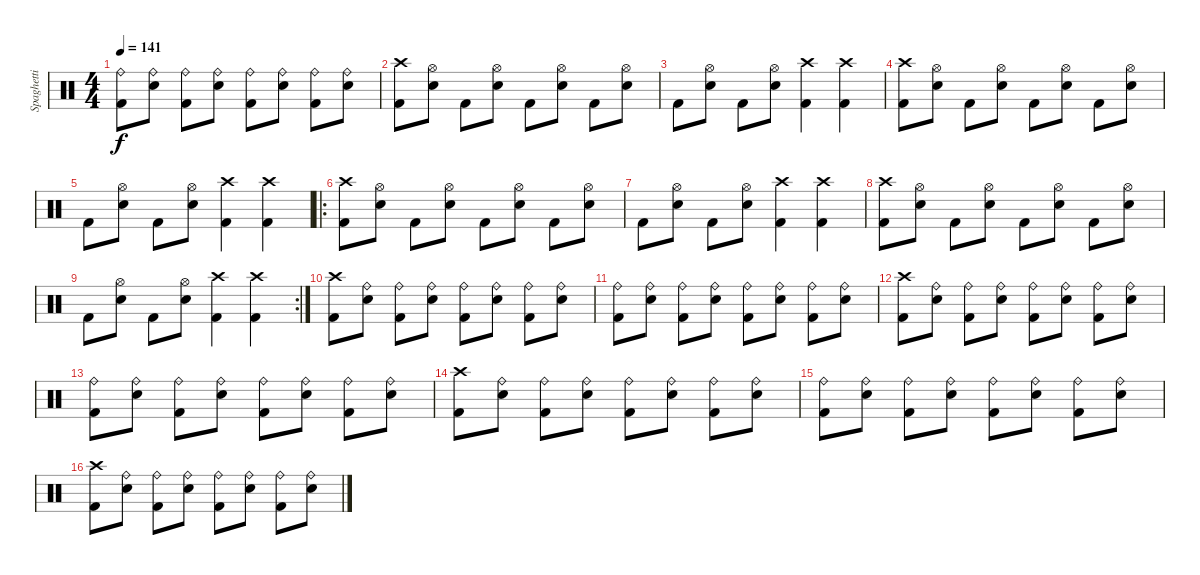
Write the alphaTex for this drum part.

\track ("Spaghetti" "Spaghetti") {instrument percussion}
\staff {score}
\articulation defaults
\ts (4 4)
\tempo 141
\clef neutral
\ks c
("Ride (bell)" "Kick (hit) 2").8{dy f} ("Ride (bell)" "Snare (hit) 2").8 ("Ride (bell)" "Kick (hit) 2").8 ("Ride (bell)" "Snare (hit) 2").8 ("Ride (bell)" "Kick (hit) 2").8 ("Ride (bell)" "Snare (hit) 2").8 ("Ride (bell)" "Kick (hit) 2").8 ("Ride (bell)" "Snare (hit) 2").8 |
("Crash high (hit)" "Kick (hit) 2").8 ("Hi-Hat (open)" "Snare (hit) 2").8 "Kick (hit) 2".8 ("Hi-Hat (open)" "Snare (hit) 2").8 "Kick (hit) 2".8 ("Hi-Hat (open)" "Snare (hit) 2").8 "Kick (hit) 2".8 ("Hi-Hat (open)" "Snare (hit) 2").8 |
"Kick (hit) 2".8 ("Hi-Hat (open)" "Snare (hit) 2").8 "Kick (hit) 2".8 ("Hi-Hat (open)" "Snare (hit) 2").8 ("Crash high (hit)" "Kick (hit) 2").4 ("Crash high (hit)" "Kick (hit) 2").4 |
("Crash high (hit)" "Kick (hit) 2").8 ("Hi-Hat (open)" "Snare (hit) 2").8 "Kick (hit) 2".8 ("Hi-Hat (open)" "Snare (hit) 2").8 "Kick (hit) 2".8 ("Hi-Hat (open)" "Snare (hit) 2").8 "Kick (hit) 2".8 ("Hi-Hat (open)" "Snare (hit) 2").8 |
"Kick (hit) 2".8 ("Hi-Hat (open)" "Snare (hit) 2").8 "Kick (hit) 2".8 ("Hi-Hat (open)" "Snare (hit) 2").8 ("Crash high (hit)" "Kick (hit) 2").4 ("Crash high (hit)" "Kick (hit) 2").4 |
\ro
("Crash high (hit)" "Kick (hit) 2").8 ("Hi-Hat (open)" "Snare (hit) 2").8 "Kick (hit) 2".8 ("Hi-Hat (open)" "Snare (hit) 2").8 "Kick (hit) 2".8 ("Hi-Hat (open)" "Snare (hit) 2").8 "Kick (hit) 2".8 ("Hi-Hat (open)" "Snare (hit) 2").8 |
"Kick (hit) 2".8 ("Hi-Hat (open)" "Snare (hit) 2").8 "Kick (hit) 2".8 ("Hi-Hat (open)" "Snare (hit) 2").8 ("Crash high (hit)" "Kick (hit) 2").4 ("Crash high (hit)" "Kick (hit) 2").4 |
("Crash high (hit)" "Kick (hit) 2").8 ("Hi-Hat (open)" "Snare (hit) 2").8 "Kick (hit) 2".8 ("Hi-Hat (open)" "Snare (hit) 2").8 "Kick (hit) 2".8 ("Hi-Hat (open)" "Snare (hit) 2").8 "Kick (hit) 2".8 ("Hi-Hat (open)" "Snare (hit) 2").8 |
\rc 2 "Kick (hit) 2".8
("Hi-Hat (open)" "Snare (hit) 2").8 "Kick (hit) 2".8 ("Hi-Hat (open)" "Snare (hit) 2").8 ("Crash high (hit)" "Kick (hit) 2").4 ("Crash high (hit)" "Kick (hit) 2").4 |
("Crash high (hit)" "Kick (hit) 2").8 ("Ride (bell)" "Snare (hit) 2").8 ("Ride (bell)" "Kick (hit) 2").8 ("Ride (bell)" "Snare (hit) 2").8 ("Ride (bell)" "Kick (hit) 2").8 ("Ride (bell)" "Snare (hit) 2").8 ("Ride (bell)" "Kick (hit) 2").8 ("Ride (bell)" "Snare (hit) 2").8 |
("Ride (bell)" "Kick (hit) 2").8 ("Ride (bell)" "Snare (hit) 2").8 ("Ride (bell)" "Kick (hit) 2").8 ("Ride (bell)" "Snare (hit) 2").8 ("Ride (bell)" "Kick (hit) 2").8 ("Ride (bell)" "Snare (hit) 2").8 ("Ride (bell)" "Kick (hit) 2").8 ("Ride (bell)" "Snare (hit) 2").8 |
("Crash high (hit)" "Kick (hit) 2").8 ("Ride (bell)" "Snare (hit) 2").8 ("Ride (bell)" "Kick (hit) 2").8 ("Ride (bell)" "Snare (hit) 2").8 ("Ride (bell)" "Kick (hit) 2").8 ("Ride (bell)" "Snare (hit) 2").8 ("Ride (bell)" "Kick (hit) 2").8 ("Ride (bell)" "Snare (hit) 2").8 |
("Ride (bell)" "Kick (hit) 2").8 ("Ride (bell)" "Snare (hit) 2").8 ("Ride (bell)" "Kick (hit) 2").8 ("Ride (bell)" "Snare (hit) 2").8 ("Ride (bell)" "Kick (hit) 2").8 ("Ride (bell)" "Snare (hit) 2").8 ("Ride (bell)" "Kick (hit) 2").8 ("Ride (bell)" "Snare (hit) 2").8 |
("Crash high (hit)" "Kick (hit) 2").8 ("Ride (bell)" "Snare (hit) 2").8 ("Ride (bell)" "Kick (hit) 2").8 ("Ride (bell)" "Snare (hit) 2").8 ("Ride (bell)" "Kick (hit) 2").8 ("Ride (bell)" "Snare (hit) 2").8 ("Ride (bell)" "Kick (hit) 2").8 ("Ride (bell)" "Snare (hit) 2").8 |
("Ride (bell)" "Kick (hit) 2").8 ("Ride (bell)" "Snare (hit) 2").8 ("Ride (bell)" "Kick (hit) 2").8 ("Ride (bell)" "Snare (hit) 2").8 ("Ride (bell)" "Kick (hit) 2").8 ("Ride (bell)" "Snare (hit) 2").8 ("Ride (bell)" "Kick (hit) 2").8 ("Ride (bell)" "Snare (hit) 2").8 |
("Crash high (hit)" "Kick (hit) 2").8 ("Ride (bell)" "Snare (hit) 2").8 ("Ride (bell)" "Kick (hit) 2").8 ("Ride (bell)" "Snare (hit) 2").8 ("Ride (bell)" "Kick (hit) 2").8 ("Ride (bell)" "Snare (hit) 2").8 ("Ride (bell)" "Kick (hit) 2").8 ("Ride (bell)" "Snare (hit) 2").8
